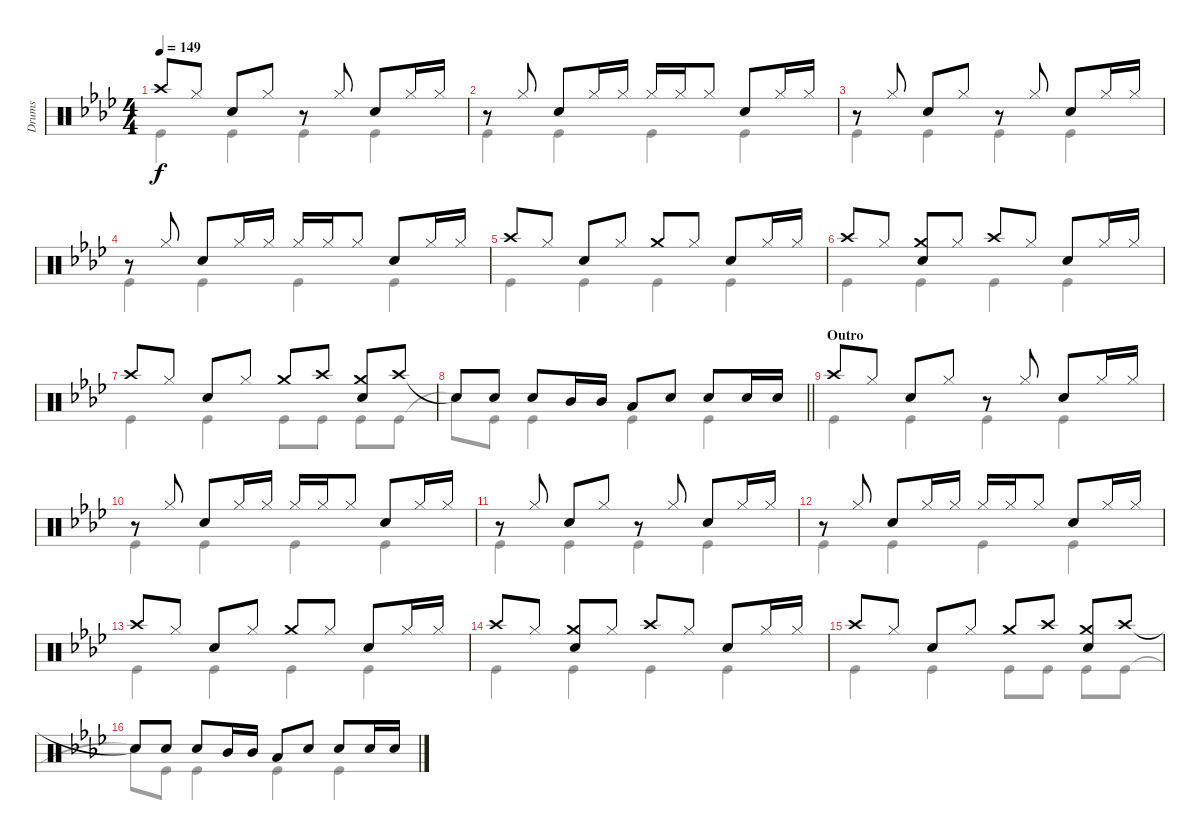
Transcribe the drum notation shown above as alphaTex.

\track ("Drums" "Drums") {instrument percussion}
\staff {score}
\articulation defaults
\voice
\ts (4 4)
\tempo 149
\clef neutral
\ks ab "Crash high (hit)".8{dy f} "Hi-Hat (closed)".8 "Snare (hit) 2".8 "Hi-Hat (closed)".8
r.8 "Hi-Hat (closed)".8 "Snare (hit) 2".8 "Hi-Hat (closed)".16 "Hi-Hat (closed)".16 |
r.8 "Hi-Hat (closed)".8 "Snare (hit) 2".8 "Hi-Hat (closed)".16 "Hi-Hat (closed)".16 "Hi-Hat (closed)".16 "Hi-Hat (closed)".16 "Hi-Hat (closed)".8 "Snare (hit) 2".8 "Hi-Hat (closed)".16 "Hi-Hat (closed)".16 |
r.8 "Hi-Hat (closed)".8 "Snare (hit) 2".8 "Hi-Hat (closed)".8 r.8 "Hi-Hat (closed)".8 "Snare (hit) 2".8 "Hi-Hat (closed)".16 "Hi-Hat (closed)".16 |
r.8 "Hi-Hat (closed)".8 "Snare (hit) 2".8 "Hi-Hat (closed)".16 "Hi-Hat (closed)".16 "Hi-Hat (closed)".16 "Hi-Hat (closed)".16 "Hi-Hat (closed)".8 "Snare (hit) 2".8 "Hi-Hat (closed)".16 "Hi-Hat (closed)".16 |
"Crash high (hit)".8 "Hi-Hat (closed)".8 "Snare (hit) 2".8 "Hi-Hat (closed)".8 "Crash medium (hit)".8 "Hi-Hat (closed)".8 "Snare (hit) 2".8 "Hi-Hat (closed)".16 "Hi-Hat (closed)".16 |
"Crash high (hit)".8 "Hi-Hat (closed)".8 ("Crash medium (hit)" "Snare (hit) 2").8 "Hi-Hat (closed)".8 "Crash high (hit)".8 "Hi-Hat (closed)".8 "Snare (hit) 2".8 "Hi-Hat (closed)".16 "Hi-Hat (closed)".16 |
"Crash high (hit)".8 "Hi-Hat (closed)".8 "Snare (hit) 2".8 "Hi-Hat (closed)".8 "Crash medium (hit)".8 "Crash high (hit)".8 ("Crash medium (hit)" "Snare (hit) 2").8 "Crash high (hit)".8 |
\barLineRight lightlight "Snare (hit)"{t}.8 "Snare (hit) 2".8 "Snare (hit) 2".8 "Mid Tom (hit)".16 "Mid Tom (hit)".16 "Low Tom (hit)".8 "Snare (hit) 2".8 "Snare (hit) 2".8 "Snare (hit) 2".16 "Snare (hit) 2".16
|
\section ("" "Outro")
"Crash high (hit)".8 "Hi-Hat (closed)".8 "Snare (hit) 2".8 "Hi-Hat (closed)".8 r.8 "Hi-Hat (closed)".8 "Snare (hit) 2".8 "Hi-Hat (closed)".16 "Hi-Hat (closed)".16 |
r.8 "Hi-Hat (closed)".8 "Snare (hit) 2".8 "Hi-Hat (closed)".16 "Hi-Hat (closed)".16 "Hi-Hat (closed)".16 "Hi-Hat (closed)".16 "Hi-Hat (closed)".8 "Snare (hit) 2".8 "Hi-Hat (closed)".16 "Hi-Hat (closed)".16 |
r.8 "Hi-Hat (closed)".8 "Snare (hit) 2".8 "Hi-Hat (closed)".8 r.8 "Hi-Hat (closed)".8 "Snare (hit) 2".8 "Hi-Hat (closed)".16 "Hi-Hat (closed)".16 |
r.8 "Hi-Hat (closed)".8 "Snare (hit) 2".8 "Hi-Hat (closed)".16 "Hi-Hat (closed)".16 "Hi-Hat (closed)".16 "Hi-Hat (closed)".16 "Hi-Hat (closed)".8 "Snare (hit) 2".8 "Hi-Hat (closed)".16 "Hi-Hat (closed)".16 |
"Crash high (hit)".8 "Hi-Hat (closed)".8 "Snare (hit) 2".8 "Hi-Hat (closed)".8 "Crash medium (hit)".8 "Hi-Hat (closed)".8 "Snare (hit) 2".8 "Hi-Hat (closed)".16 "Hi-Hat (closed)".16 |
"Crash high (hit)".8 "Hi-Hat (closed)".8 ("Crash medium (hit)" "Snare (hit) 2").8 "Hi-Hat (closed)".8 "Crash high (hit)".8 "Hi-Hat (closed)".8 "Snare (hit) 2".8 "Hi-Hat (closed)".16 "Hi-Hat (closed)".16 |
"Crash high (hit)".8 "Hi-Hat (closed)".8 "Snare (hit) 2".8 "Hi-Hat (closed)".8 "Crash medium (hit)".8 "Crash high (hit)".8 ("Crash medium (hit)" "Snare (hit) 2").8 "Crash high (hit)".8 |
"Snare (hit)"{t}.8 "Snare (hit) 2".8 "Snare (hit) 2".8 "Mid Tom (hit)".16 "Mid Tom (hit)".16 "Low Tom (hit)".8 "Snare (hit) 2".8 "Snare (hit) 2".8 "Snare (hit) 2".16 "Snare (hit) 2".16
\voice
\clef neutral
\ottava regular
\simile none
\ks ab "Kick (hit)".4{dy f} "Kick (hit)".4 "Kick (hit)".4 "Kick (hit)".4
|
"Kick (hit)".4 "Kick (hit)".4 "Kick (hit)".4 "Kick (hit)".4 |
"Kick (hit)".4 "Kick (hit)".4 "Kick (hit)".4 "Kick (hit)".4 |
"Kick (hit)".4 "Kick (hit)".4 "Kick (hit)".4 "Kick (hit)".4 |
"Kick (hit)".4 "Kick (hit)".4 "Kick (hit)".4 "Kick (hit)".4 |
"Kick (hit)".4 "Kick (hit)".4 "Kick (hit)".4 "Kick (hit)".4 |
"Kick (hit)".4 "Kick (hit)".4 "Kick (hit)".8 "Kick (hit)".8 "Kick (hit)".8 "Kick (hit)".8 |
\barLineRight lightlight "Snare (hit)"{t}.8 "Kick (hit)".8 "Kick (hit)".4 "Kick (hit)".4 "Kick (hit)".4
|
"Kick (hit)".4 "Kick (hit)".4 "Kick (hit)".4 "Kick (hit)".4 |
"Kick (hit)".4 "Kick (hit)".4 "Kick (hit)".4 "Kick (hit)".4 |
"Kick (hit)".4 "Kick (hit)".4 "Kick (hit)".4 "Kick (hit)".4 |
"Kick (hit)".4 "Kick (hit)".4 "Kick (hit)".4 "Kick (hit)".4 |
"Kick (hit)".4 "Kick (hit)".4 "Kick (hit)".4 "Kick (hit)".4 |
"Kick (hit)".4 "Kick (hit)".4 "Kick (hit)".4 "Kick (hit)".4 |
"Kick (hit)".4 "Kick (hit)".4 "Kick (hit)".8 "Kick (hit)".8 "Kick (hit)".8 "Kick (hit)".8 |
"Snare (hit)"{t}.8 "Kick (hit)".8 "Kick (hit)".4 "Kick (hit)".4 "Kick (hit)".4
